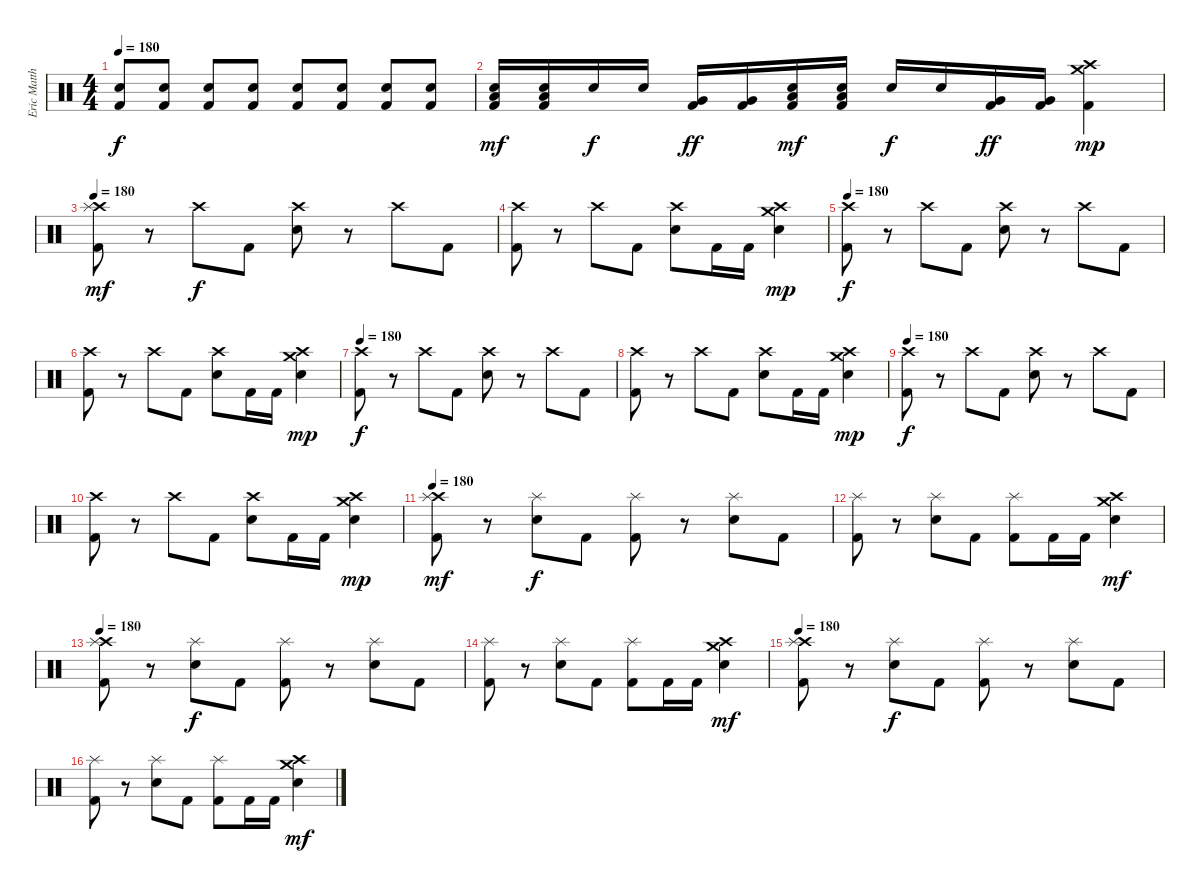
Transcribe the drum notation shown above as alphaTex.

\track ("Eric Matthews (drums)" "Eric Matth") {instrument percussion}
\staff {score}
\articulation defaults
\ts (4 4)
\tempo 180
\clef neutral
\ks c
("Snare (hit) 2" "Kick (hit) 2").8{dy f} ("Snare (hit) 2" "Kick (hit) 2").8 ("Snare (hit) 2" "Kick (hit) 2").8 ("Snare (hit) 2" "Kick (hit) 2").8 ("Snare (hit) 2" "Kick (hit) 2").8 ("Snare (hit) 2" "Kick (hit) 2").8 ("Snare (hit) 2" "Kick (hit) 2").8 ("Snare (hit) 2" "Kick (hit) 2").8 |
("Electric Snare (hit)" "Low Tom (hit)" "Kick (hit) 2").16{dy mf} ("Electric Snare (hit)" "Low Tom (hit)" "Kick (hit) 2").16 "Snare (hit) 2".16{dy f} "Snare (hit) 2".16 ("Very Low Tom (hit)" "Kick (hit) 2").16{dy ff} ("Very Low Tom (hit)" "Kick (hit) 2").16 ("Electric Snare (hit)" "Low Tom (hit)" "Kick (hit) 2").16{dy mf} ("Electric Snare (hit)" "Low Tom (hit)" "Kick (hit) 2").16 "Snare (hit) 2".16{dy f} "Snare (hit) 2".16 ("Very Low Tom (hit)" "Kick (hit) 2").16{dy ff} ("Very Low Tom (hit)" "Kick (hit) 2").16 ("Crash high (hit)" "Crash medium (hit)" "Kick (hit) 2").4{dy mp} |
\tempo 180
("Crash high (hit)" "Splash (hit)" "Kick (hit) 2").8{dy mf} r.8 "Crash high (hit)".8{dy f} "Kick (hit) 2".8 ("Crash high (hit)" "Snare (hit) 2").8 r.8 "Crash high (hit)".8 "Kick (hit) 2".8 |
("Crash high (hit)" "Kick (hit) 2").8 r.8 "Crash high (hit)".8 "Kick (hit) 2".8 ("Crash high (hit)" "Snare (hit) 2").8 "Kick (hit) 2".16 "Kick (hit) 2".16 ("Crash high (hit)" "Crash medium (hit)" "Snare (hit) 2").4{dy mp} |
\tempo 180
("Crash high (hit)" "Kick (hit) 2").8{dy f} r.8 "Crash high (hit)".8 "Kick (hit) 2".8 ("Crash high (hit)" "Snare (hit) 2").8 r.8 "Crash high (hit)".8 "Kick (hit) 2".8 |
("Crash high (hit)" "Kick (hit) 2").8 r.8 "Crash high (hit)".8 "Kick (hit) 2".8 ("Crash high (hit)" "Snare (hit) 2").8 "Kick (hit) 2".16 "Kick (hit) 2".16 ("Crash high (hit)" "Crash medium (hit)" "Snare (hit) 2").4{dy mp} |
\tempo 180
("Crash high (hit)" "Kick (hit) 2").8{dy f} r.8 "Crash high (hit)".8 "Kick (hit) 2".8 ("Crash high (hit)" "Snare (hit) 2").8 r.8 "Crash high (hit)".8 "Kick (hit) 2".8 |
("Crash high (hit)" "Kick (hit) 2").8 r.8 "Crash high (hit)".8 "Kick (hit) 2".8 ("Crash high (hit)" "Snare (hit) 2").8 "Kick (hit) 2".16 "Kick (hit) 2".16 ("Crash high (hit)" "Crash medium (hit)" "Snare (hit) 2").4{dy mp} |
\tempo 180
("Crash high (hit)" "Kick (hit) 2").8{dy f} r.8 "Crash high (hit)".8 "Kick (hit) 2".8 ("Crash high (hit)" "Snare (hit) 2").8 r.8 "Crash high (hit)".8 "Kick (hit) 2".8 |
("Crash high (hit)" "Kick (hit) 2").8 r.8 "Crash high (hit)".8 "Kick (hit) 2".8 ("Crash high (hit)" "Snare (hit) 2").8 "Kick (hit) 2".16 "Kick (hit) 2".16 ("Crash high (hit)" "Crash medium (hit)" "Snare (hit) 2").4{dy mp} |
\tempo 180
("Crash high (hit)" "Splash (hit)" "Kick (hit) 2").8{dy mf} r.8 ("Splash (hit)" "Snare (hit) 2").8{dy f} "Kick (hit) 2".8 ("Splash (hit)" "Kick (hit) 2").8 r.8 ("Splash (hit)" "Snare (hit) 2").8 "Kick (hit) 2".8 |
("Splash (hit)" "Kick (hit) 2").8 r.8 ("Splash (hit)" "Snare (hit) 2").8 "Kick (hit) 2".8 ("Splash (hit)" "Kick (hit) 2").8 "Kick (hit) 2".16 "Kick (hit) 2".16 ("Crash medium (hit)" "Crash high (hit)" "Snare (hit) 2").4{dy mf} |
\tempo 180
("Crash high (hit)" "Splash (hit)" "Kick (hit) 2").8 r.8 ("Splash (hit)" "Snare (hit) 2").8{dy f} "Kick (hit) 2".8 ("Splash (hit)" "Kick (hit) 2").8 r.8 ("Splash (hit)" "Snare (hit) 2").8 "Kick (hit) 2".8 |
("Splash (hit)" "Kick (hit) 2").8 r.8 ("Splash (hit)" "Snare (hit) 2").8 "Kick (hit) 2".8 ("Splash (hit)" "Kick (hit) 2").8 "Kick (hit) 2".16 "Kick (hit) 2".16 ("Crash medium (hit)" "Crash high (hit)" "Snare (hit) 2").4{dy mf} |
\tempo 180
("Crash high (hit)" "Splash (hit)" "Kick (hit) 2").8 r.8 ("Splash (hit)" "Snare (hit) 2").8{dy f} "Kick (hit) 2".8 ("Splash (hit)" "Kick (hit) 2").8 r.8 ("Splash (hit)" "Snare (hit) 2").8 "Kick (hit) 2".8 |
("Splash (hit)" "Kick (hit) 2").8 r.8 ("Splash (hit)" "Snare (hit) 2").8 "Kick (hit) 2".8 ("Splash (hit)" "Kick (hit) 2").8 "Kick (hit) 2".16 "Kick (hit) 2".16 ("Crash medium (hit)" "Crash high (hit)" "Snare (hit) 2").4{dy mf}
